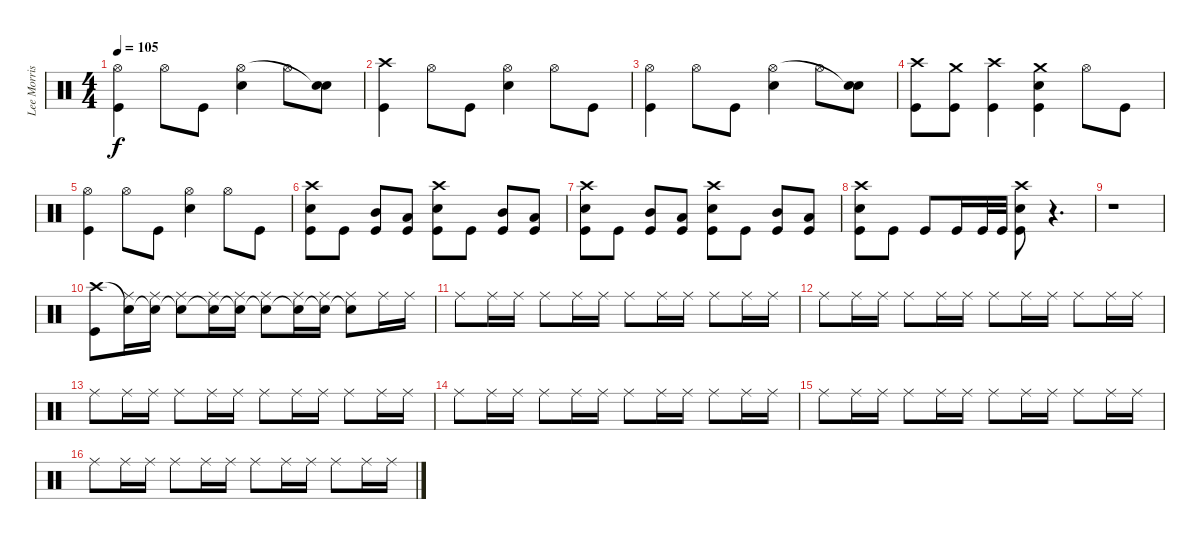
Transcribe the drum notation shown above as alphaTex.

\track ("Lee Morris" "Lee Morris") {instrument percussion}
\staff {score}
\articulation defaults
\ts (4 4)
\tempo 105
\clef neutral
\ks c
("Kick (hit)" "Hi-Hat (open)").4{dy f} "Hi-Hat (open)".8 "Kick (hit)".8 ("Snare (hit) 2" "Hi-Hat (open)").4 "Hi-Hat (open)".8 ("Snare (hit) 2" "Snare (hit)"{t}).8 |
("Kick (hit)" "Crash high (hit)").4 "Hi-Hat (open)".8 "Kick (hit)".8 ("Snare (hit) 2" "Hi-Hat (open)").4 "Hi-Hat (open)".8 "Kick (hit)".8 |
("Kick (hit)" "Hi-Hat (open)").4 "Hi-Hat (open)".8 "Kick (hit)".8 ("Snare (hit) 2" "Hi-Hat (open)").4 "Hi-Hat (open)".8 ("Snare (hit) 2" "Snare (hit)"{t}).8 |
("Kick (hit)" "Crash high (hit)").8 ("Kick (hit)" "Crash medium (hit)").8 ("Kick (hit)" "Crash high (hit)").4 ("Kick (hit)" "Snare (hit) 2" "Crash medium (hit)").4 "Hi-Hat (open)".8 "Kick (hit)".8 |
("Kick (hit)" "Hi-Hat (open)").4 "Hi-Hat (open)".8 "Kick (hit)".8 ("Snare (hit) 2" "Hi-Hat (open)").4 "Hi-Hat (open)".8 "Kick (hit)".8 |
("Kick (hit)" "Snare (hit) 2" "Crash high (hit)").8 "Kick (hit)".8 ("Kick (hit)" "Mid Tom (hit)").8 ("Kick (hit)" "Low Tom (hit)").8 ("Kick (hit)" "Snare (hit) 2" "Crash high (hit)").8 "Kick (hit)".8 ("Kick (hit)" "Mid Tom (hit)").8 ("Kick (hit)" "Low Tom (hit)").8 |
("Kick (hit)" "Snare (hit) 2" "Crash high (hit)").8 "Kick (hit)".8 ("Kick (hit)" "Mid Tom (hit)").8 ("Kick (hit)" "Low Tom (hit)").8 ("Kick (hit)" "Snare (hit) 2" "Crash high (hit)").8 "Kick (hit)".8 ("Kick (hit)" "Mid Tom (hit)").8 ("Kick (hit)" "Low Tom (hit)").8 |
("Kick (hit)" "Snare (hit) 2" "Crash high (hit)").8 "Kick (hit)".8 "Kick (hit)".8 "Kick (hit)".16 "Kick (hit)".32 "Kick (hit)".32 ("Kick (hit)" "Snare (hit) 2" "Crash high (hit)").8 r.4{d} |
r.1 |
("Kick (hit)" "Crash high (hit)").8 ("Ride (middle)" "Snare (hit)"{t}).16 ("Ride (middle)" "Snare (hit)"{t}).16 ("Ride (middle)" "Snare (hit)"{t}).8 ("Ride (middle)" "Snare (hit)"{t}).16 ("Ride (middle)" "Snare (hit)"{t}).16 ("Ride (middle)" "Snare (hit)"{t}).8 ("Ride (middle)" "Snare (hit)"{t}).16 ("Ride (middle)" "Snare (hit)"{t}).16 ("Ride (middle)" "Snare (hit)"{t}).8 "Ride (middle)".16 "Ride (middle)".16 |
"Ride (middle)".8 "Ride (middle)".16 "Ride (middle)".16 "Ride (middle)".8 "Ride (middle)".16 "Ride (middle)".16 "Ride (middle)".8 "Ride (middle)".16 "Ride (middle)".16 "Ride (middle)".8 "Ride (middle)".16 "Ride (middle)".16 |
"Ride (middle)".8 "Ride (middle)".16 "Ride (middle)".16 "Ride (middle)".8 "Ride (middle)".16 "Ride (middle)".16 "Ride (middle)".8 "Ride (middle)".16 "Ride (middle)".16 "Ride (middle)".8 "Ride (middle)".16 "Ride (middle)".16 |
"Ride (middle)".8 "Ride (middle)".16 "Ride (middle)".16 "Ride (middle)".8 "Ride (middle)".16 "Ride (middle)".16 "Ride (middle)".8 "Ride (middle)".16 "Ride (middle)".16 "Ride (middle)".8 "Ride (middle)".16 "Ride (middle)".16 |
"Ride (middle)".8 "Ride (middle)".16 "Ride (middle)".16 "Ride (middle)".8 "Ride (middle)".16 "Ride (middle)".16 "Ride (middle)".8 "Ride (middle)".16 "Ride (middle)".16 "Ride (middle)".8 "Ride (middle)".16 "Ride (middle)".16 |
"Ride (middle)".8 "Ride (middle)".16 "Ride (middle)".16 "Ride (middle)".8 "Ride (middle)".16 "Ride (middle)".16 "Ride (middle)".8 "Ride (middle)".16 "Ride (middle)".16 "Ride (middle)".8 "Ride (middle)".16 "Ride (middle)".16 |
"Ride (middle)".8 "Ride (middle)".16 "Ride (middle)".16 "Ride (middle)".8 "Ride (middle)".16 "Ride (middle)".16 "Ride (middle)".8 "Ride (middle)".16 "Ride (middle)".16 "Ride (middle)".8 "Ride (middle)".16 "Ride (middle)".16
